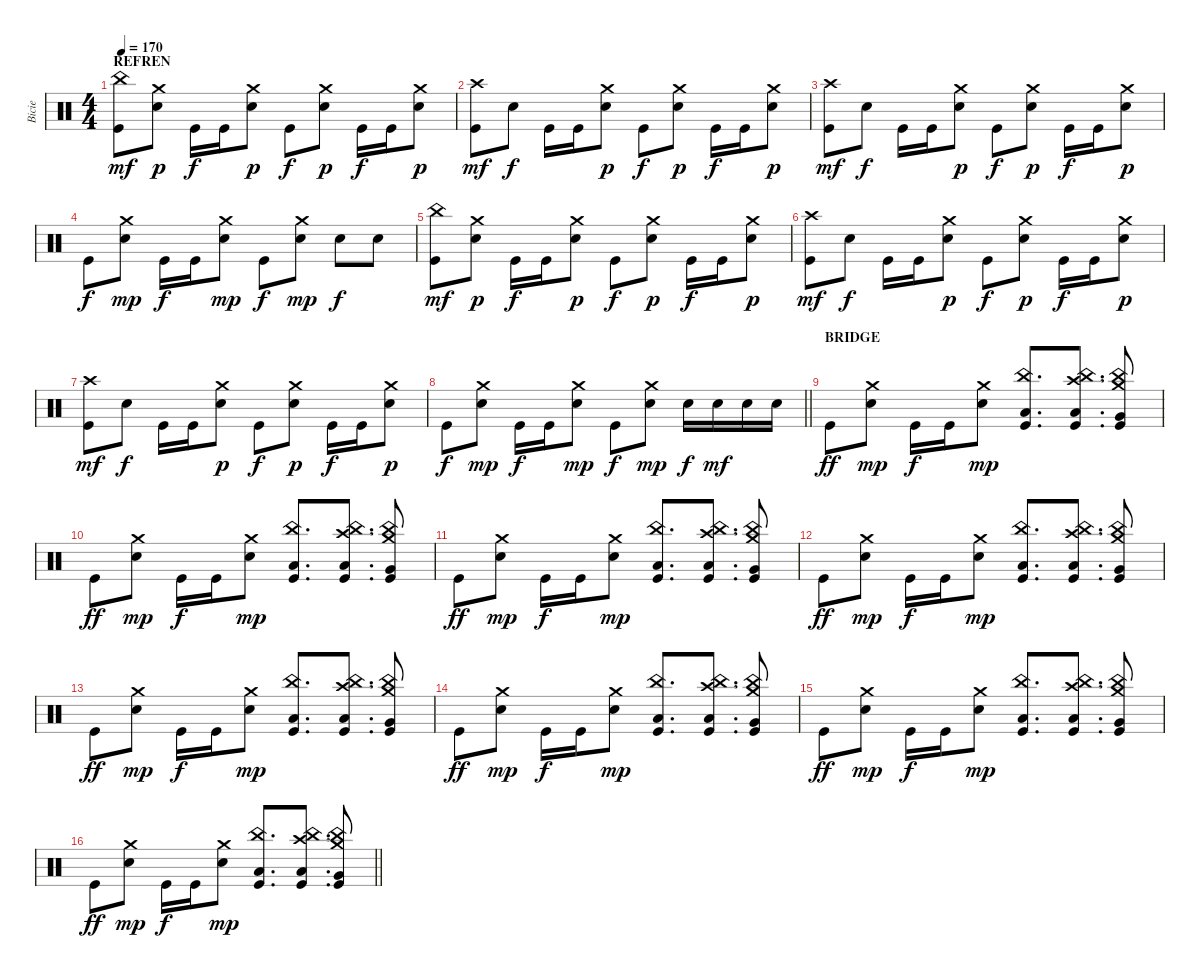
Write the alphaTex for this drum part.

\track ("Bicie" "Bicie") {instrument percussion}
\staff {score}
\articulation defaults
\ts (4 4)
\section ("" "REFREN")
\tempo 170
\clef neutral
\ks c
("Kick (hit)" "China (hit)").8{dy mf} ("Snare (hit) 2" "Crash medium (hit)").8{dy p} "Kick (hit)".16{dy f} "Kick (hit)".16 ("Snare (hit) 2" "Crash medium (hit)").8{dy p} "Kick (hit)".8{dy f} ("Snare (hit) 2" "Crash medium (hit)").8{dy p} "Kick (hit)".16{dy f} "Kick (hit)".16 ("Snare (hit) 2" "Crash medium (hit)").8{dy p} |
("Kick (hit)" "Crash high (hit)").8{dy mf} "Snare (hit) 2".8{dy f} "Kick (hit)".16 "Kick (hit)".16 ("Snare (hit) 2" "Crash medium (hit)").8{dy p} "Kick (hit)".8{dy f} ("Snare (hit) 2" "Crash medium (hit)").8{dy p} "Kick (hit)".16{dy f} "Kick (hit)".16 ("Snare (hit) 2" "Crash medium (hit)").8{dy p} |
("Kick (hit)" "Crash high (hit)").8{dy mf} "Snare (hit) 2".8{dy f} "Kick (hit)".16 "Kick (hit)".16 ("Snare (hit) 2" "Crash medium (hit)").8{dy p} "Kick (hit)".8{dy f} ("Snare (hit) 2" "Crash medium (hit)").8{dy p} "Kick (hit)".16{dy f} "Kick (hit)".16 ("Snare (hit) 2" "Crash medium (hit)").8{dy p} |
"Kick (hit)".8{dy f} ("Snare (hit) 2" "Crash medium (hit)").8{dy mp} "Kick (hit)".16{dy f} "Kick (hit)".16 ("Snare (hit) 2" "Crash medium (hit)").8{dy mp} "Kick (hit)".8{dy f} ("Snare (hit) 2" "Crash medium (hit)").8{dy mp} "Snare (hit) 2".8{dy f} "Snare (hit) 2".8 |
("Kick (hit)" "China (hit)").8{dy mf} ("Snare (hit) 2" "Crash medium (hit)").8{dy p} "Kick (hit)".16{dy f} "Kick (hit)".16 ("Snare (hit) 2" "Crash medium (hit)").8{dy p} "Kick (hit)".8{dy f} ("Snare (hit) 2" "Crash medium (hit)").8{dy p} "Kick (hit)".16{dy f} "Kick (hit)".16 ("Snare (hit) 2" "Crash medium (hit)").8{dy p} |
("Kick (hit)" "Crash high (hit)").8{dy mf} "Snare (hit) 2".8{dy f} "Kick (hit)".16 "Kick (hit)".16 ("Snare (hit) 2" "Crash medium (hit)").8{dy p} "Kick (hit)".8{dy f} ("Snare (hit) 2" "Crash medium (hit)").8{dy p} "Kick (hit)".16{dy f} "Kick (hit)".16 ("Snare (hit) 2" "Crash medium (hit)").8{dy p} |
("Kick (hit)" "Crash high (hit)").8{dy mf} "Snare (hit) 2".8{dy f} "Kick (hit)".16 "Kick (hit)".16 ("Snare (hit) 2" "Crash medium (hit)").8{dy p} "Kick (hit)".8{dy f} ("Snare (hit) 2" "Crash medium (hit)").8{dy p} "Kick (hit)".16{dy f} "Kick (hit)".16 ("Snare (hit) 2" "Crash medium (hit)").8{dy p} |
\barLineRight lightlight "Kick (hit)".8{dy f}
("Snare (hit) 2" "Crash medium (hit)").8{dy mp} "Kick (hit)".16{dy f} "Kick (hit)".16 ("Snare (hit) 2" "Crash medium (hit)").8{dy mp} "Kick (hit)".8{dy f} ("Snare (hit) 2" "Crash medium (hit)").8{dy mp} "Snare (hit) 2".16{dy f} "Snare (hit) 2".16{dy mf} "Snare (hit) 2".16 "Snare (hit) 2".16 |
\section ("" "BRIDGE")
"Kick (hit)".8{dy ff} ("Snare (hit) 2" "Crash medium (hit)").8{dy mp} "Kick (hit)".16{dy f} "Kick (hit)".16 ("Snare (hit) 2" "Crash medium (hit)").8{dy mp} ("Kick (hit)" "Low Floor Tom (hit)" "China (hit)").8{d} ("Kick (hit)" "Low Floor Tom (hit)" "Crash high (hit)" "China (hit)").8{d} ("Kick (hit)" "Very Low Tom (hit)" "Crash medium (hit)" "China (hit)").8 |
"Kick (hit)".8{dy ff} ("Snare (hit) 2" "Crash medium (hit)").8{dy mp} "Kick (hit)".16{dy f} "Kick (hit)".16 ("Snare (hit) 2" "Crash medium (hit)").8{dy mp} ("Kick (hit)" "Low Floor Tom (hit)" "China (hit)").8{d} ("Kick (hit)" "Low Floor Tom (hit)" "Crash high (hit)" "China (hit)").8{d} ("Kick (hit)" "Very Low Tom (hit)" "Crash medium (hit)" "China (hit)").8 |
"Kick (hit)".8{dy ff} ("Snare (hit) 2" "Crash medium (hit)").8{dy mp} "Kick (hit)".16{dy f} "Kick (hit)".16 ("Snare (hit) 2" "Crash medium (hit)").8{dy mp} ("Kick (hit)" "Low Floor Tom (hit)" "China (hit)").8{d} ("Kick (hit)" "Low Floor Tom (hit)" "Crash high (hit)" "China (hit)").8{d} ("Kick (hit)" "Very Low Tom (hit)" "Crash medium (hit)" "China (hit)").8 |
"Kick (hit)".8{dy ff} ("Snare (hit) 2" "Crash medium (hit)").8{dy mp} "Kick (hit)".16{dy f} "Kick (hit)".16 ("Snare (hit) 2" "Crash medium (hit)").8{dy mp} ("Kick (hit)" "Low Floor Tom (hit)" "China (hit)").8{d} ("Kick (hit)" "Low Floor Tom (hit)" "Crash high (hit)" "China (hit)").8{d} ("Kick (hit)" "Very Low Tom (hit)" "Crash medium (hit)" "China (hit)").8 |
"Kick (hit)".8{dy ff} ("Snare (hit) 2" "Crash medium (hit)").8{dy mp} "Kick (hit)".16{dy f} "Kick (hit)".16 ("Snare (hit) 2" "Crash medium (hit)").8{dy mp} ("Kick (hit)" "Low Floor Tom (hit)" "China (hit)").8{d} ("Kick (hit)" "Low Floor Tom (hit)" "Crash high (hit)" "China (hit)").8{d} ("Kick (hit)" "Very Low Tom (hit)" "Crash medium (hit)" "China (hit)").8 |
"Kick (hit)".8{dy ff} ("Snare (hit) 2" "Crash medium (hit)").8{dy mp} "Kick (hit)".16{dy f} "Kick (hit)".16 ("Snare (hit) 2" "Crash medium (hit)").8{dy mp} ("Kick (hit)" "Low Floor Tom (hit)" "China (hit)").8{d} ("Kick (hit)" "Low Floor Tom (hit)" "Crash high (hit)" "China (hit)").8{d} ("Kick (hit)" "Very Low Tom (hit)" "Crash medium (hit)" "China (hit)").8 |
"Kick (hit)".8{dy ff} ("Snare (hit) 2" "Crash medium (hit)").8{dy mp} "Kick (hit)".16{dy f} "Kick (hit)".16 ("Snare (hit) 2" "Crash medium (hit)").8{dy mp} ("Kick (hit)" "Low Floor Tom (hit)" "China (hit)").8{d} ("Kick (hit)" "Low Floor Tom (hit)" "Crash high (hit)" "China (hit)").8{d} ("Kick (hit)" "Very Low Tom (hit)" "Crash medium (hit)" "China (hit)").8 |
\barLineRight lightlight "Kick (hit)".8{dy ff}
("Snare (hit) 2" "Crash medium (hit)").8{dy mp} "Kick (hit)".16{dy f} "Kick (hit)".16 ("Snare (hit) 2" "Crash medium (hit)").8{dy mp} ("Kick (hit)" "Low Floor Tom (hit)" "China (hit)").8{d} ("Kick (hit)" "Low Floor Tom (hit)" "Crash high (hit)" "China (hit)").8{d} ("Kick (hit)" "Very Low Tom (hit)" "Crash medium (hit)" "China (hit)").8
